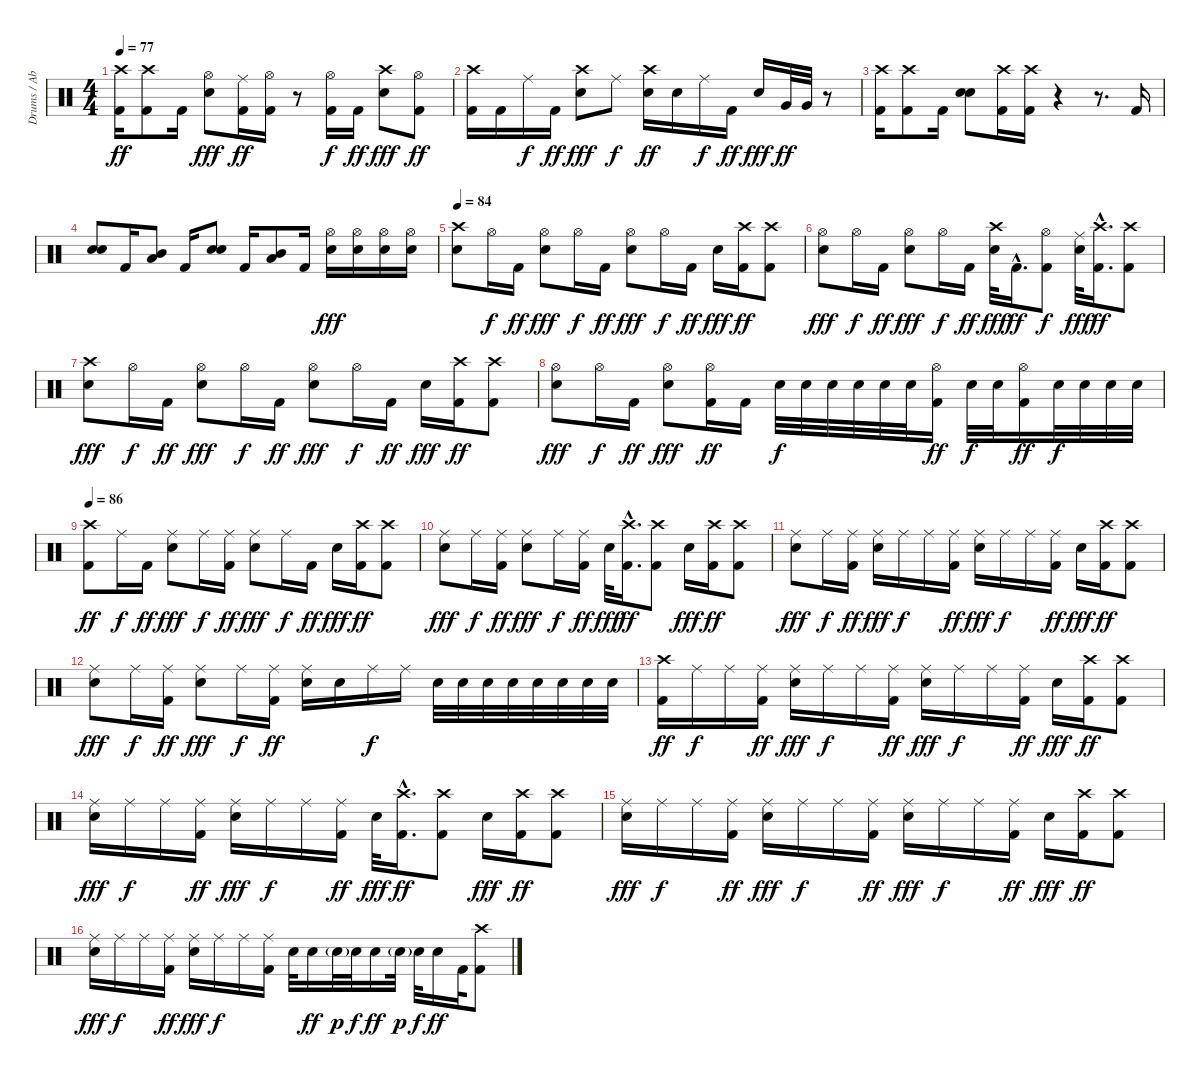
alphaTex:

\track ("Drums / Abe Cunningham" "Drums / Ab") {instrument percussion}
\staff {score}
\articulation defaults
\ts (4 4)
\tempo 77
\clef neutral
\ks c
("Crash high (hit)" "Kick (hit) 2").16{dy ff} ("Crash high (hit)" "Kick (hit) 2").8 "Kick (hit) 2".16 ("Hi-Hat (open)" "Electric Snare (hit)").8{dy fff} ("Ride (middle)" "Kick (hit) 2").16{dy ff} ("Hi-Hat (open)" "Kick (hit) 2").16 r.8 ("Hi-Hat (open)" "Kick (hit) 2").16{dy f} "Kick (hit) 2".16{dy ff} ("Crash high (hit)" "Electric Snare (hit)").8{dy fff} ("Hi-Hat (open)" "Kick (hit) 2").8{dy ff} |
("Crash high (hit)" "Kick (hit) 2").16 "Kick (hit) 2".16 "Ride (middle)".16{dy f} "Kick (hit) 2".16{dy ff} ("Crash high (hit)" "Electric Snare (hit)").8{dy fff} "Ride (middle)".8{dy f} ("Crash high (hit)" "Electric Snare (hit)").16{dy ff} "Electric Snare (hit)".16 "Ride (middle)".16{dy f} "Kick (hit) 2".16{dy ff} "Electric Snare (hit)".16{dy fff} "Very Low Tom (hit)".32{dy ff} "Very Low Tom (hit)".32 r.8 |
("Crash high (hit)" "Kick (hit) 2").16 ("Crash high (hit)" "Kick (hit) 2").8 "Kick (hit) 2".16 ("Electric Snare (hit)" "Electric Snare (hit)").8{bd 120} ("Crash high (hit)" "Kick (hit) 2").16 ("Crash high (hit)" "Kick (hit) 2").16 r.4 r.8{d} "Kick (hit) 2".16 |
("Electric Snare (hit)" "Electric Snare (hit)").8{bd 120} "Kick (hit) 2".16 ("Mid Tom (hit)" "Low Tom (hit)").8 "Kick (hit) 2".16 ("Electric Snare (hit)" "Electric Snare (hit)").8{bd 120} "Kick (hit) 2".16 ("Mid Tom (hit)" "Low Tom (hit)").8 "Kick (hit) 2".16 ("Hi-Hat (open)" "Electric Snare (hit)").16{dy fff} ("Hi-Hat (open)" "Electric Snare (hit)").16 ("Hi-Hat (open)" "Electric Snare (hit)").16 ("Hi-Hat (open)" "Electric Snare (hit)").16 |
\tempo 84
("Crash high (hit)" "Electric Snare (hit)").8 "Hi-Hat (open)".16{dy f} "Kick (hit) 2".16{dy ff} ("Hi-Hat (open)" "Electric Snare (hit)").8{dy fff} "Hi-Hat (open)".16{dy f} "Kick (hit) 2".16{dy ff} ("Hi-Hat (open)" "Electric Snare (hit)").8{dy fff} "Hi-Hat (open)".16{dy f} "Kick (hit) 2".16{dy ff} "Electric Snare (hit)".16{dy fff} ("Crash high (hit)" "Kick (hit) 2").16{dy ff} ("Crash high (hit)" "Kick (hit) 2").8 |
("Hi-Hat (open)" "Electric Snare (hit)").8{dy fff} "Hi-Hat (open)".16{dy f} "Kick (hit) 2".16{dy ff} ("Hi-Hat (open)" "Electric Snare (hit)").8{dy fff} "Hi-Hat (open)".16{dy f} "Kick (hit) 2".16{dy ff} ("Crash high (hit)" "Electric Snare (hit)").32{dy fff} "Kick (hit) 2"{hac}.16{d dy ff} ("Hi-Hat (open)" "Kick (hit) 2").8{dy f} ("Ride (middle)" "Electric Snare (hit)").32{dy fff} ("Crash high (hit)"{hac} "Kick (hit) 2"{hac}).16{d dy ff} ("Crash high (hit)" "Kick (hit) 2").8 |
("Crash high (hit)" "Electric Snare (hit)").8{dy fff} "Hi-Hat (open)".16{dy f} "Kick (hit) 2".16{dy ff} ("Hi-Hat (open)" "Electric Snare (hit)").8{dy fff} "Hi-Hat (open)".16{dy f} "Kick (hit) 2".16{dy ff} ("Hi-Hat (open)" "Electric Snare (hit)").8{dy fff} "Hi-Hat (open)".16{dy f} "Kick (hit) 2".16{dy ff} "Electric Snare (hit)".16{dy fff} ("Crash high (hit)" "Kick (hit) 2").16{dy ff} ("Crash high (hit)" "Kick (hit) 2").8 |
("Hi-Hat (open)" "Electric Snare (hit)").8{dy fff} "Hi-Hat (open)".16{dy f} "Kick (hit) 2".16{dy ff} ("Hi-Hat (open)" "Electric Snare (hit)").8{dy fff} ("Hi-Hat (open)" "Kick (hit) 2").16{dy ff} "Kick (hit) 2".16 "Electric Snare (hit)".32{dy f} "Electric Snare (hit)".32 "Electric Snare (hit)".32 "Electric Snare (hit)".32 "Electric Snare (hit)".32 "Electric Snare (hit)".32 ("Hi-Hat (open)" "Kick (hit) 2").16{dy ff} "Electric Snare (hit)".32{dy f} "Electric Snare (hit)".32 ("Hi-Hat (open)" "Kick (hit) 2").16{dy ff} "Electric Snare (hit)".32{dy f} "Electric Snare (hit)".32 "Electric Snare (hit)".32 "Electric Snare (hit)".32 |
\tempo 86
("Crash high (hit)" "Kick (hit) 2").8{dy ff} "Ride (middle)".16{dy f} "Kick (hit) 2".16{dy ff} ("Ride (middle)" "Electric Snare (hit)").8{dy fff} "Ride (middle)".16{dy f} ("Ride (middle)" "Kick (hit) 2").16{dy ff} ("Ride (middle)" "Electric Snare (hit)").8{dy fff} "Ride (middle)".16{dy f} "Kick (hit) 2".16{dy ff} "Electric Snare (hit)".16{dy fff} ("Crash high (hit)" "Kick (hit) 2").16{dy ff} ("Crash high (hit)" "Kick (hit) 2").8 |
("Ride (middle)" "Electric Snare (hit)").8{dy fff} "Ride (middle)".16{dy f} ("Ride (middle)" "Kick (hit) 2").16{dy ff} ("Ride (middle)" "Electric Snare (hit)").8{dy fff} "Ride (middle)".16{dy f} ("Ride (middle)" "Kick (hit) 2").16{dy ff} "Electric Snare (hit)".32{dy fff} ("Crash high (hit)"{hac} "Kick (hit) 2"{hac}).16{d dy ff} ("Crash high (hit)" "Kick (hit) 2").8 "Electric Snare (hit)".16{dy fff} ("Crash high (hit)" "Kick (hit) 2").16{dy ff} ("Crash high (hit)" "Kick (hit) 2").8 |
("Ride (middle)" "Electric Snare (hit)").8{dy fff} "Ride (middle)".16{dy f} ("Ride (middle)" "Kick (hit) 2").16{dy ff} ("Ride (middle)" "Electric Snare (hit)").16{dy fff} "Ride (middle)".16{dy f} "Ride (middle)".16 ("Ride (middle)" "Kick (hit) 2").16{dy ff} ("Ride (middle)" "Electric Snare (hit)").16{dy fff} "Ride (middle)".16{dy f} "Ride (middle)".16 ("Ride (middle)" "Kick (hit) 2").16{dy ff} "Electric Snare (hit)".16{dy fff} ("Crash high (hit)" "Kick (hit) 2").16{dy ff} ("Crash high (hit)" "Kick (hit) 2").8 |
("Ride (middle)" "Electric Snare (hit)").8{dy fff} "Ride (middle)".16{dy f} ("Ride (middle)" "Kick (hit) 2").16{dy ff} ("Ride (middle)" "Electric Snare (hit)").8{dy fff} "Ride (middle)".16{dy f} ("Ride (middle)" "Kick (hit) 2").16{dy ff} ("Ride (middle)" "Electric Snare (hit)").16 "Electric Snare (hit)".16 "Ride (middle)".16{dy f} "Ride (middle)".16 "Electric Snare (hit)".32 "Electric Snare (hit)".32 "Electric Snare (hit)".32 "Electric Snare (hit)".32 "Electric Snare (hit)".32 "Electric Snare (hit)".32 "Electric Snare (hit)".32 "Electric Snare (hit)".32 |
("Crash high (hit)" "Kick (hit) 2").16{dy ff} "Ride (middle)".16{dy f} "Ride (middle)".16 ("Ride (middle)" "Kick (hit) 2").16{dy ff} ("Ride (middle)" "Electric Snare (hit)").16{dy fff} "Ride (middle)".16{dy f} "Ride (middle)".16 ("Ride (middle)" "Kick (hit) 2").16{dy ff} ("Ride (middle)" "Electric Snare (hit)").16{dy fff} "Ride (middle)".16{dy f} "Ride (middle)".16 ("Ride (middle)" "Kick (hit) 2").16{dy ff} "Electric Snare (hit)".16{dy fff} ("Crash high (hit)" "Kick (hit) 2").16{dy ff} ("Crash high (hit)" "Kick (hit) 2").8 |
("Ride (middle)" "Electric Snare (hit)").16{dy fff} "Ride (middle)".16{dy f} "Ride (middle)".16 ("Ride (middle)" "Kick (hit) 2").16{dy ff} ("Ride (middle)" "Electric Snare (hit)").16{dy fff} "Ride (middle)".16{dy f} "Ride (middle)".16 ("Ride (middle)" "Kick (hit) 2").16{dy ff} "Electric Snare (hit)".32{dy fff} ("Crash high (hit)"{hac} "Kick (hit) 2"{hac}).16{d dy ff} ("Crash high (hit)" "Kick (hit) 2").8 "Electric Snare (hit)".16{dy fff} ("Crash high (hit)" "Kick (hit) 2").16{dy ff} ("Crash high (hit)" "Kick (hit) 2").8 |
("Ride (middle)" "Electric Snare (hit)").16{dy fff} "Ride (middle)".16{dy f} "Ride (middle)".16 ("Ride (middle)" "Kick (hit) 2").16{dy ff} ("Ride (middle)" "Electric Snare (hit)").16{dy fff} "Ride (middle)".16{dy f} "Ride (middle)".16 ("Ride (middle)" "Kick (hit) 2").16{dy ff} ("Ride (middle)" "Electric Snare (hit)").16{dy fff} "Ride (middle)".16{dy f} "Ride (middle)".16 ("Ride (middle)" "Kick (hit) 2").16{dy ff} "Electric Snare (hit)".16{dy fff} ("Crash high (hit)" "Kick (hit) 2").16{dy ff} ("Crash high (hit)" "Kick (hit) 2").8 |
("Ride (middle)" "Electric Snare (hit)").16{dy fff} "Ride (middle)".16{dy f} "Ride (middle)".16 ("Ride (middle)" "Kick (hit) 2").16{dy ff} ("Ride (middle)" "Electric Snare (hit)").16{dy fff} "Ride (middle)".16{dy f} "Ride (middle)".16 ("Ride (middle)" "Kick (hit) 2").16 "Electric Snare (hit)".32 "Electric Snare (hit)".16{dy ff} "Electric Snare (hit)"{g}.32{dy p} "Electric Snare (hit)".32{dy f} "Electric Snare (hit)".16{dy ff} "Electric Snare (hit)"{g}.32{dy p} "Electric Snare (hit)".32{dy f} "Electric Snare (hit)".16{dy ff} "Kick (hit) 2".32 ("Crash high (hit)" "Kick (hit) 2").8
